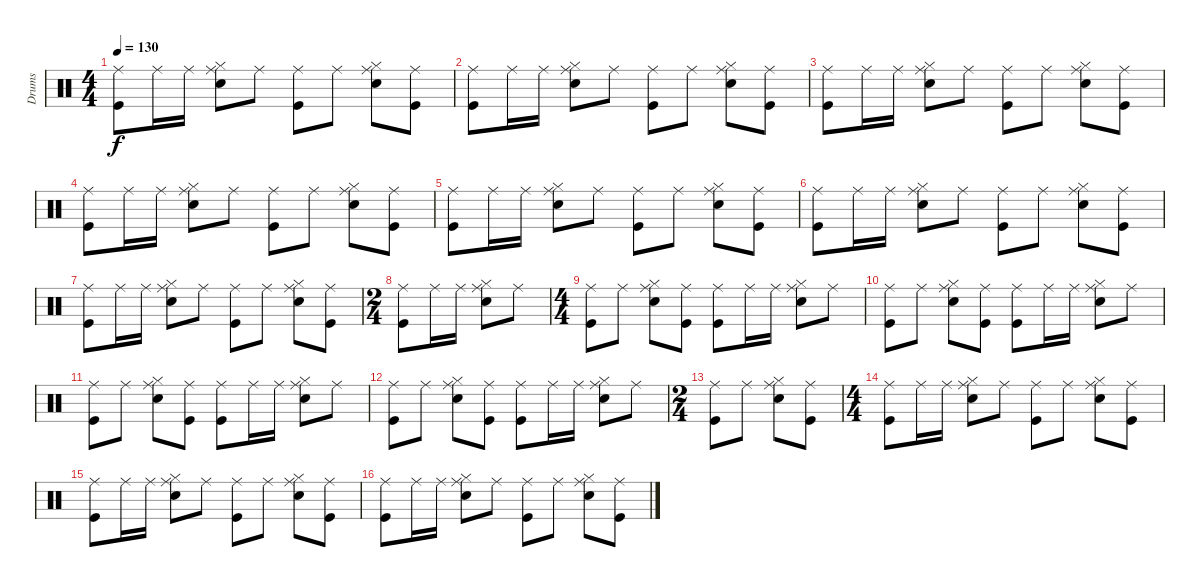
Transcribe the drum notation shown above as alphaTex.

\track ("Drums" "Drums") {instrument percussion}
\staff {score}
\articulation defaults
\ts (4 4)
\tempo 130
\clef neutral
\ks c
("Kick (hit)" "Ride (middle)").8{dy f} "Ride (middle)".16 "Ride (middle)".16 ("Snare (hit) 2" "Hi-Hat (closed)" "Ride (middle)").8 "Ride (middle)".8 ("Kick (hit)" "Ride (middle)").8 "Ride (middle)".8 ("Snare (hit) 2" "Hi-Hat (closed)" "Ride (middle)").8 ("Kick (hit)" "Ride (middle)").8 |
("Kick (hit)" "Ride (middle)").8 "Ride (middle)".16 "Ride (middle)".16 ("Snare (hit) 2" "Hi-Hat (closed)" "Ride (middle)").8 "Ride (middle)".8 ("Kick (hit)" "Ride (middle)").8 "Ride (middle)".8 ("Snare (hit) 2" "Hi-Hat (closed)" "Ride (middle)").8 ("Kick (hit)" "Ride (middle)").8 |
("Kick (hit)" "Ride (middle)").8 "Ride (middle)".16 "Ride (middle)".16 ("Snare (hit) 2" "Hi-Hat (closed)" "Ride (middle)").8 "Ride (middle)".8 ("Kick (hit)" "Ride (middle)").8 "Ride (middle)".8 ("Snare (hit) 2" "Hi-Hat (closed)" "Ride (middle)").8 ("Kick (hit)" "Ride (middle)").8 |
("Kick (hit)" "Ride (middle)").8 "Ride (middle)".16 "Ride (middle)".16 ("Snare (hit) 2" "Hi-Hat (closed)" "Ride (middle)").8 "Ride (middle)".8 ("Kick (hit)" "Ride (middle)").8 "Ride (middle)".8 ("Snare (hit) 2" "Hi-Hat (closed)" "Ride (middle)").8 ("Kick (hit)" "Ride (middle)").8 |
("Kick (hit)" "Ride (middle)").8 "Ride (middle)".16 "Ride (middle)".16 ("Snare (hit) 2" "Hi-Hat (closed)" "Ride (middle)").8 "Ride (middle)".8 ("Kick (hit)" "Ride (middle)").8 "Ride (middle)".8 ("Snare (hit) 2" "Hi-Hat (closed)" "Ride (middle)").8 ("Kick (hit)" "Ride (middle)").8 |
("Kick (hit)" "Ride (middle)").8 "Ride (middle)".16 "Ride (middle)".16 ("Snare (hit) 2" "Hi-Hat (closed)" "Ride (middle)").8 "Ride (middle)".8 ("Kick (hit)" "Ride (middle)").8 "Ride (middle)".8 ("Snare (hit) 2" "Hi-Hat (closed)" "Ride (middle)").8 ("Kick (hit)" "Ride (middle)").8 |
("Kick (hit)" "Ride (middle)").8 "Ride (middle)".16 "Ride (middle)".16 ("Snare (hit) 2" "Hi-Hat (closed)" "Ride (middle)").8 "Ride (middle)".8 ("Kick (hit)" "Ride (middle)").8 "Ride (middle)".8 ("Snare (hit) 2" "Hi-Hat (closed)" "Ride (middle)").8 ("Kick (hit)" "Ride (middle)").8 |
\ts (2 4)
("Kick (hit)" "Ride (middle)").8 "Ride (middle)".16 "Ride (middle)".16 ("Snare (hit) 2" "Hi-Hat (closed)" "Ride (middle)").8 "Ride (middle)".8 |
\ts (4 4)
("Kick (hit)" "Ride (middle)").8 "Ride (middle)".8 ("Snare (hit) 2" "Hi-Hat (closed)" "Ride (middle)").8 ("Kick (hit)" "Ride (middle)").8 ("Kick (hit)" "Ride (middle)").8 "Ride (middle)".16 "Ride (middle)".16 ("Snare (hit) 2" "Hi-Hat (closed)" "Ride (middle)").8 "Ride (middle)".8 |
("Kick (hit)" "Ride (middle)").8 "Ride (middle)".8 ("Snare (hit) 2" "Hi-Hat (closed)" "Ride (middle)").8 ("Kick (hit)" "Ride (middle)").8 ("Kick (hit)" "Ride (middle)").8 "Ride (middle)".16 "Ride (middle)".16 ("Snare (hit) 2" "Hi-Hat (closed)" "Ride (middle)").8 "Ride (middle)".8 |
("Kick (hit)" "Ride (middle)").8 "Ride (middle)".8 ("Snare (hit) 2" "Hi-Hat (closed)" "Ride (middle)").8 ("Kick (hit)" "Ride (middle)").8 ("Kick (hit)" "Ride (middle)").8 "Ride (middle)".16 "Ride (middle)".16 ("Snare (hit) 2" "Hi-Hat (closed)" "Ride (middle)").8 "Ride (middle)".8 |
("Kick (hit)" "Ride (middle)").8 "Ride (middle)".8 ("Snare (hit) 2" "Hi-Hat (closed)" "Ride (middle)").8 ("Kick (hit)" "Ride (middle)").8 ("Kick (hit)" "Ride (middle)").8 "Ride (middle)".16 "Ride (middle)".16 ("Snare (hit) 2" "Hi-Hat (closed)" "Ride (middle)").8 "Ride (middle)".8 |
\ts (2 4)
("Kick (hit)" "Ride (middle)").8 "Ride (middle)".8 ("Snare (hit) 2" "Hi-Hat (closed)" "Ride (middle)").8 ("Kick (hit)" "Ride (middle)").8 |
\ts (4 4)
("Kick (hit)" "Ride (middle)").8 "Ride (middle)".16 "Ride (middle)".16 ("Snare (hit) 2" "Hi-Hat (closed)" "Ride (middle)").8 "Ride (middle)".8 ("Kick (hit)" "Ride (middle)").8 "Ride (middle)".8 ("Snare (hit) 2" "Hi-Hat (closed)" "Ride (middle)").8 ("Kick (hit)" "Ride (middle)").8 |
("Kick (hit)" "Ride (middle)").8 "Ride (middle)".16 "Ride (middle)".16 ("Snare (hit) 2" "Hi-Hat (closed)" "Ride (middle)").8 "Ride (middle)".8 ("Kick (hit)" "Ride (middle)").8 "Ride (middle)".8 ("Snare (hit) 2" "Hi-Hat (closed)" "Ride (middle)").8 ("Kick (hit)" "Ride (middle)").8 |
("Kick (hit)" "Ride (middle)").8 "Ride (middle)".16 "Ride (middle)".16 ("Snare (hit) 2" "Hi-Hat (closed)" "Ride (middle)").8 "Ride (middle)".8 ("Kick (hit)" "Ride (middle)").8 "Ride (middle)".8 ("Snare (hit) 2" "Hi-Hat (closed)" "Ride (middle)").8 ("Kick (hit)" "Ride (middle)").8
